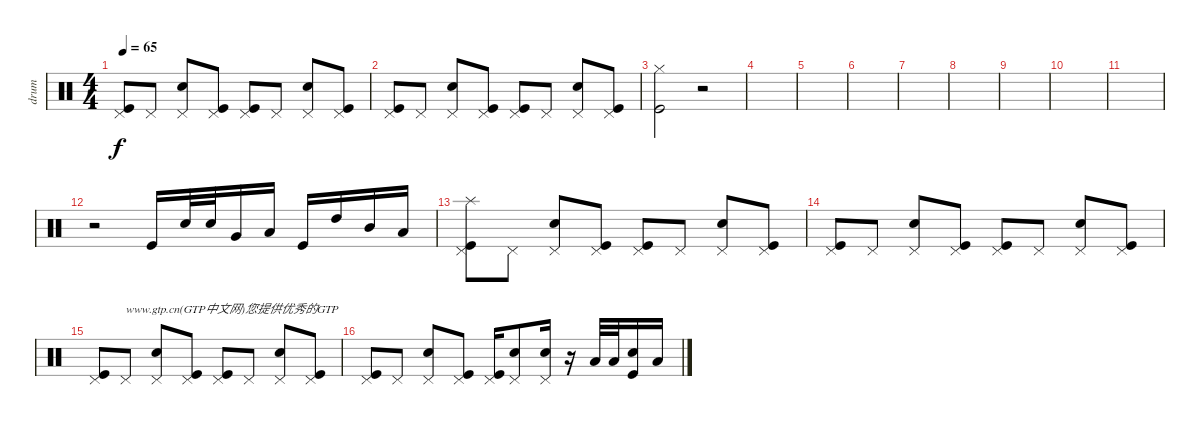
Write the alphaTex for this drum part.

\track ("drum" "drum") {instrument percussion}
\staff {score}
\articulation defaults
\ts (4 4)
\tempo 65
\clef neutral
\ks c
("Pedal Hi-Hat (hit)" "Kick (hit)").8{dy f} "Pedal Hi-Hat (hit)".8 ("Pedal Hi-Hat (hit)" "Electric Snare (hit)").8 ("Pedal Hi-Hat (hit)" "Kick (hit)").8 ("Pedal Hi-Hat (hit)" "Kick (hit)").8 "Pedal Hi-Hat (hit)".8 ("Pedal Hi-Hat (hit)" "Electric Snare (hit)").8 ("Pedal Hi-Hat (hit)" "Kick (hit)").8 |
("Pedal Hi-Hat (hit)" "Kick (hit)").8 "Pedal Hi-Hat (hit)".8 ("Pedal Hi-Hat (hit)" "Electric Snare (hit)").8 ("Pedal Hi-Hat (hit)" "Kick (hit)").8 ("Pedal Hi-Hat (hit)" "Kick (hit)").8 "Pedal Hi-Hat (hit)".8 ("Pedal Hi-Hat (hit)" "Electric Snare (hit)").8 ("Pedal Hi-Hat (hit)" "Kick (hit)").8 |
("Hi-Hat (closed)" "Kick (hit)").2 r.2 |
|
|
|
|
|
|
|
|
r.2 "Kick (hit)".16 "Snare (hit) 2".32 "Snare (hit) 2".32 "Very Low Tom (hit)".16 "Low Floor Tom (hit)".16 "Kick (hit)".16 "High Tom (hit)".16 "Mid Tom (hit)".16 "Low Tom (hit)".16 |
("Pedal Hi-Hat (hit)" "Splash (hit)" "Kick (hit)").8 "Pedal Hi-Hat (hit)".8 ("Pedal Hi-Hat (hit)" "Electric Snare (hit)").8 ("Pedal Hi-Hat (hit)" "Kick (hit)").8 ("Pedal Hi-Hat (hit)" "Kick (hit)").8 "Pedal Hi-Hat (hit)".8 ("Pedal Hi-Hat (hit)" "Electric Snare (hit)").8 ("Pedal Hi-Hat (hit)" "Kick (hit)").8 |
("Pedal Hi-Hat (hit)" "Kick (hit)").8 "Pedal Hi-Hat (hit)".8 ("Pedal Hi-Hat (hit)" "Electric Snare (hit)").8 ("Pedal Hi-Hat (hit)" "Kick (hit)").8 ("Pedal Hi-Hat (hit)" "Kick (hit)").8 "Pedal Hi-Hat (hit)".8 ("Pedal Hi-Hat (hit)" "Electric Snare (hit)").8 ("Pedal Hi-Hat (hit)" "Kick (hit)").8 |
("Pedal Hi-Hat (hit)" "Kick (hit)").8 "Pedal Hi-Hat (hit)".8{txt "www.gtp.cn(GTP中文网)您提供优秀的GTP"} ("Pedal Hi-Hat (hit)" "Electric Snare (hit)").8 ("Pedal Hi-Hat (hit)" "Kick (hit)").8 ("Pedal Hi-Hat (hit)" "Kick (hit)").8 "Pedal Hi-Hat (hit)".8 ("Pedal Hi-Hat (hit)" "Electric Snare (hit)").8 ("Pedal Hi-Hat (hit)" "Kick (hit)").8 |
("Pedal Hi-Hat (hit)" "Kick (hit)").8 "Pedal Hi-Hat (hit)".8 ("Pedal Hi-Hat (hit)" "Electric Snare (hit)").8 ("Pedal Hi-Hat (hit)" "Kick (hit)").8 ("Pedal Hi-Hat (hit)" "Kick (hit)").16 ("Pedal Hi-Hat (hit)" "Electric Snare (hit)").8 ("Pedal Hi-Hat (hit)" "Electric Snare (hit)").16 r.16 "Low Floor Tom (hit)".32 "Low Floor Tom (hit)".32 ("Electric Snare (hit)" "Kick (hit)").16 "Low Floor Tom (hit)".16
